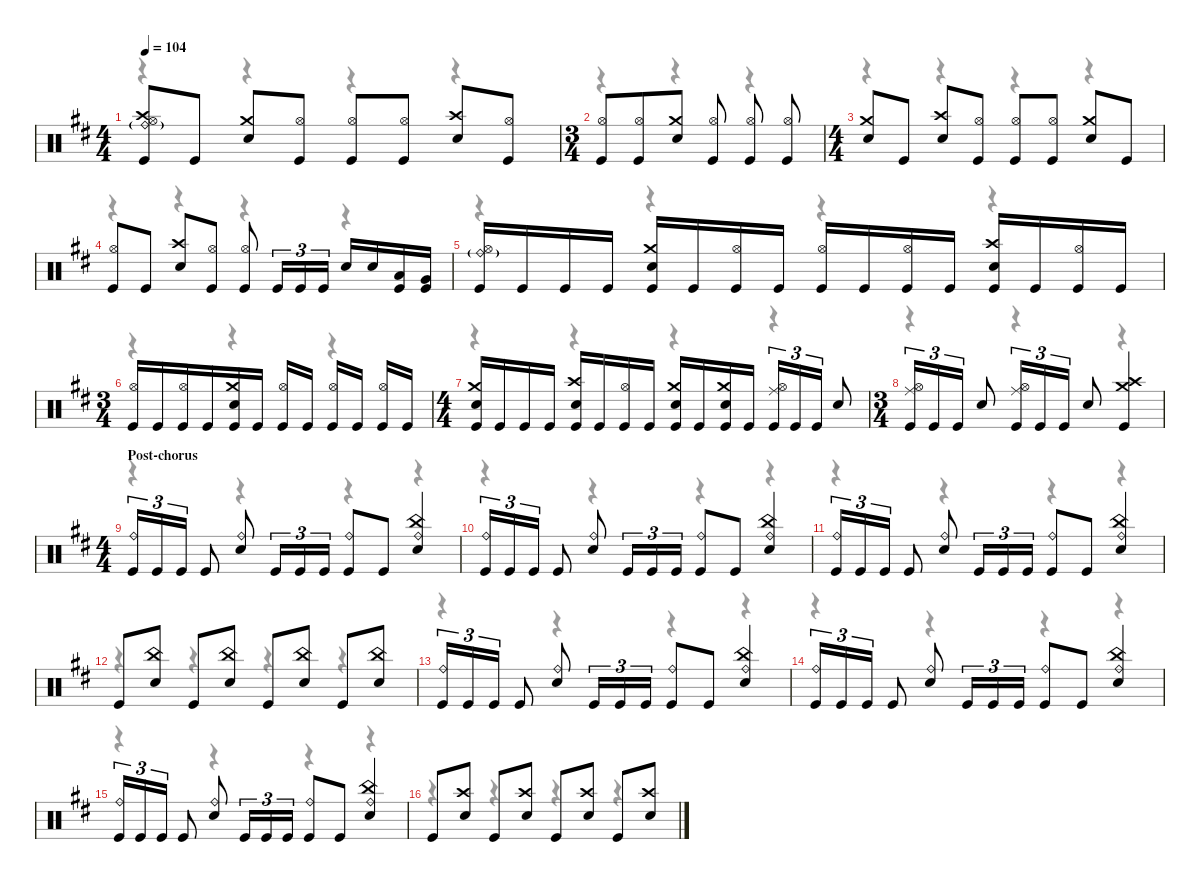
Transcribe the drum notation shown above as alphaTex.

\defaultSystemsLayout 4
\hideDynamics
\bracketExtendMode nobrackets
\singleTrackTrackNamePolicy hidden
\multiTrackTrackNamePolicy hidden
\firstSystemTrackNameMode fullname
\otherSystemsTrackNameOrientation horizontal
\track ("Drums" "drm.") {instrument percussion}
\staff {score}
\articulation defaults
\voice
\ts (4 4)
\beaming (8 2 2 2 2)
\tempo 104
\clef neutral
\ks bminor
("Ride (bell)"{g acc forcenatural} "Crash high (hit)"{acc forcenatural} "Hi-Hat (open)"{acc forcenatural} "Kick (hit)"{acc forcenatural}).8{dy mp beam Up} "Kick (hit)"{acc forcenatural}.8{dy f beam Up} ("Crash medium (hit)"{acc forcenatural} "Snare (hit) 2"{acc forcenatural}).8{dy mp beam Up} ("Hi-Hat (open)"{acc forcenatural} "Kick (hit)"{acc forcenatural}).8{dy pp beam Up} ("Hi-Hat (open)"{acc forcenatural} "Kick (hit)"{acc forcenatural}).8{dy mp beam Up} ("Hi-Hat (open)"{acc forcenatural} "Kick (hit)"{acc forcenatural}).8{dy pp beam Up} ("Crash high (hit)"{acc forcenatural} "Snare (hit) 2"{acc forcenatural}).8{dy mp beam Up} ("Hi-Hat (open)"{acc forcenatural} "Kick (hit)"{acc forcenatural}).8{dy pp beam Up} |
\ts (3 4)
\beaming (8 3 1 1 1)
("Hi-Hat (open)"{acc forcenatural} "Kick (hit)"{acc forcenatural}).8{dy mp beam Up} ("Hi-Hat (open)"{acc forcenatural} "Kick (hit)"{acc forcenatural}).8{dy pp beam Up} ("Crash medium (hit)"{acc forcenatural} "Snare (hit) 2"{acc forcenatural}).8{dy mp beam Up} ("Hi-Hat (open)"{acc forcenatural} "Kick (hit)"{acc forcenatural}).8{dy pp beam Up} ("Hi-Hat (open)"{acc forcenatural} "Kick (hit)"{acc forcenatural}).8{dy mp beam Up} ("Hi-Hat (open)"{acc forcenatural} "Kick (hit)"{acc forcenatural}).8{dy pp beam Up} |
\ts (4 4)
\beaming (8 2 2 2 2)
("Crash medium (hit)"{acc forcenatural} "Snare (hit) 2"{acc forcenatural}).8{dy mp beam Up} "Kick (hit)"{acc forcenatural}.8{dy f beam Up} ("Crash high (hit)"{acc forcenatural} "Snare (hit) 2"{acc forcenatural}).8{dy mp beam Up} ("Hi-Hat (open)"{acc forcenatural} "Kick (hit)"{acc forcenatural}).8{dy pp beam Up} ("Hi-Hat (open)"{acc forcenatural} "Kick (hit)"{acc forcenatural}).8{dy mp beam Up} ("Hi-Hat (open)"{acc forcenatural} "Kick (hit)"{acc forcenatural}).8{dy pp beam Up} ("Crash medium (hit)"{acc forcenatural} "Snare (hit) 2"{acc forcenatural}).8{dy mp beam Up} "Kick (hit)"{acc forcenatural}.8{dy f beam Up} |
("Hi-Hat (open)"{acc forcenatural} "Kick (hit)"{acc forcenatural}).8{dy mp beam Up} "Kick (hit)"{acc forcenatural}.8{dy f beam Up} ("Crash high (hit)"{acc forcenatural} "Snare (hit) 2"{acc forcenatural}).8{dy mp beam Up} ("Hi-Hat (open)"{acc forcenatural} "Kick (hit)"{acc forcenatural}).8{dy pp beam Up} ("Hi-Hat (open)"{acc forcenatural} "Kick (hit)"{acc forcenatural}).8{dy mp beam Up} "Kick (hit)"{acc forcenatural}.16{tu (3 2) dy f beam Up} "Kick (hit)"{acc forcenatural}.16{tu (3 2) beam Up} "Kick (hit)"{acc forcenatural}.16{tu (3 2) beam Up} "Snare (hit) 2"{acc forcenatural}.16{beam Up} "Snare (hit) 2"{acc forcenatural}.16{beam Up} ("Low Tom (hit)"{acc forcenatural} "Kick (hit)"{acc forcenatural}).16{dy mp beam Up} ("Very Low Tom (hit)"{acc forcenatural} "Kick (hit)"{acc forcenatural}).16{beam Up} |
("Ride (bell)"{g acc forcenatural} "Hi-Hat (open)"{acc forcenatural} "Kick (hit)"{acc forcenatural}).16{beam Up} "Kick (hit)"{acc forcenatural}.16{dy f beam Up} "Kick (hit)"{acc forcenatural}.16{beam Up} "Kick (hit)"{acc forcenatural}.16{beam Up} ("Crash medium (hit)"{acc forcenatural} "Snare (hit) 2"{acc forcenatural} "Kick (hit)"{acc forcenatural}).16{dy mp beam Up} "Kick (hit)"{acc forcenatural}.16{dy f beam Up} ("Hi-Hat (open)"{acc forcenatural} "Kick (hit)"{acc forcenatural}).16{dy pp beam Up} "Kick (hit)"{acc forcenatural}.16{dy f beam Up} ("Hi-Hat (open)"{acc forcenatural} "Kick (hit)"{acc forcenatural}).16{dy mp beam Up} "Kick (hit)"{acc forcenatural}.16{dy f beam Up} ("Hi-Hat (open)"{acc forcenatural} "Kick (hit)"{acc forcenatural}).16{dy pp beam Up} "Kick (hit)"{acc forcenatural}.16{dy f beam Up} ("Crash high (hit)"{acc forcenatural} "Snare (hit) 2"{acc forcenatural} "Kick (hit)"{acc forcenatural}).16{dy mp beam Up} "Kick (hit)"{acc forcenatural}.16{dy f beam Up} ("Hi-Hat (open)"{acc forcenatural} "Kick (hit)"{acc forcenatural}).16{dy pp beam Up} "Kick (hit)"{acc forcenatural}.16{dy f beam Up} |
\ts (3 4)
\beaming (8 3 1 1 1)
("Hi-Hat (open)"{acc forcenatural} "Kick (hit)"{acc forcenatural}).16{dy mp beam Up} "Kick (hit)"{acc forcenatural}.16{dy f beam Up} ("Hi-Hat (open)"{acc forcenatural} "Kick (hit)"{acc forcenatural}).16{dy pp beam Up} "Kick (hit)"{acc forcenatural}.16{dy f beam Up} ("Crash medium (hit)"{acc forcenatural} "Snare (hit) 2"{acc forcenatural} "Kick (hit)"{acc forcenatural}).16{dy mp beam Up} "Kick (hit)"{acc forcenatural}.16{dy f beam Up} ("Hi-Hat (open)"{acc forcenatural} "Kick (hit)"{acc forcenatural}).16{dy pp beam Up} "Kick (hit)"{acc forcenatural}.16{dy f beam Up} ("Hi-Hat (open)"{acc forcenatural} "Kick (hit)"{acc forcenatural}).16{dy mp beam Up} "Kick (hit)"{acc forcenatural}.16{dy f beam Up} ("Hi-Hat (open)"{acc forcenatural} "Kick (hit)"{acc forcenatural}).16{dy pp beam Up} "Kick (hit)"{acc forcenatural}.16{dy f beam Up} |
\ts (4 4)
\beaming (8 2 2 2 2)
("Crash medium (hit)"{acc forcenatural} "Snare (hit) 2"{acc forcenatural} "Kick (hit)"{acc forcenatural}).16{dy mp beam Up} "Kick (hit)"{acc forcenatural}.16{dy f beam Up} "Kick (hit)"{acc forcenatural}.16{beam Up} "Kick (hit)"{acc forcenatural}.16{beam Up} ("Crash high (hit)"{acc forcenatural} "Snare (hit) 2"{acc forcenatural} "Kick (hit)"{acc forcenatural}).16{dy mp beam Up} "Kick (hit)"{acc forcenatural}.16{dy f beam Up} ("Hi-Hat (open)"{acc forcenatural} "Kick (hit)"{acc forcenatural}).16{dy pp beam Up} "Kick (hit)"{acc forcenatural}.16{dy f beam Up} ("Crash medium (hit)"{acc forcenatural} "Snare (hit) 2"{acc forcenatural} "Kick (hit)"{acc forcenatural}).16{dy mp beam Up} "Kick (hit)"{acc forcenatural}.16{dy f beam Up} ("Crash medium (hit)"{acc forcenatural} "Snare (hit) 2"{acc forcenatural} "Kick (hit)"{acc forcenatural}).16{dy mp beam Up} "Kick (hit)"{acc forcenatural}.16{dy f beam Up} ("Ride (middle)"{acc forcenatural} "Hi-Hat (open)"{acc forcenatural} "Kick (hit)"{acc forcenatural}).16{tu (3 2) dy mf beam Up} "Kick (hit)"{acc forcenatural}.16{tu (3 2) dy f beam Up} "Kick (hit)"{acc forcenatural}.16{tu (3 2) beam Up} "Snare (hit) 2"{acc forcenatural}.8{beam Up} |
\ts (3 4)
\beaming (8 3 1 1 1)
("Ride (middle)"{acc forcenatural} "Hi-Hat (open)"{acc forcenatural} "Kick (hit)"{acc forcenatural}).16{tu (3 2) dy mf beam Up} "Kick (hit)"{acc forcenatural}.16{tu (3 2) dy f beam Up} "Kick (hit)"{acc forcenatural}.16{tu (3 2) beam Up} "Snare (hit) 2"{acc forcenatural}.8{beam Up} ("Ride (middle)"{acc forcenatural} "Hi-Hat (open)"{acc forcenatural} "Kick (hit)"{acc forcenatural}).16{tu (3 2) dy mf beam Up} "Kick (hit)"{acc forcenatural}.16{tu (3 2) dy f beam Up} "Kick (hit)"{acc forcenatural}.16{tu (3 2) beam Up} "Snare (hit) 2"{acc forcenatural}.8{beam Up} ("Crash high (hit)"{acc forcenatural} "Crash medium (hit)"{acc forcenatural} "Kick (hit)"{acc forcenatural}).4{dy mp beam Up} |
\ts (4 4)
\beaming (8 2 2 2 2)
\section ("" "Post-chorus")
("Ride (bell)"{acc forcenatural} "Kick (hit)"{acc forcenatural}).16{tu (3 2) dy mf beam Up} "Kick (hit)"{acc forcenatural}.16{tu (3 2) dy f beam Up} "Kick (hit)"{acc forcenatural}.16{tu (3 2) beam Up} "Kick (hit)"{acc forcenatural}.8{beam Up} ("Ride (bell)"{acc forcenatural} "Snare (hit) 2"{acc forcenatural}).8{dy mf beam Up} "Kick (hit)"{acc forcenatural}.16{tu (3 2) dy f beam Up} "Kick (hit)"{acc forcenatural}.16{tu (3 2) beam Up} "Kick (hit)"{acc forcenatural}.16{tu (3 2) beam Up} ("Ride (bell)"{acc forcenatural} "Kick (hit)"{acc forcenatural}).8{dy mf beam Up} "Kick (hit)"{acc forcenatural}.8{dy f beam Up} ("Ride (bell)"{acc forcenatural} "China (hit)"{acc forcenatural} "Snare (hit) 2"{acc forcenatural}).4{dy mf beam Up} |
("Ride (bell)"{acc forcenatural} "Kick (hit)"{acc forcenatural}).16{tu (3 2) beam Up} "Kick (hit)"{acc forcenatural}.16{tu (3 2) dy f beam Up} "Kick (hit)"{acc forcenatural}.16{tu (3 2) beam Up} "Kick (hit)"{acc forcenatural}.8{beam Up} ("Ride (bell)"{acc forcenatural} "Snare (hit) 2"{acc forcenatural}).8{dy mf beam Up} "Kick (hit)"{acc forcenatural}.16{tu (3 2) dy f beam Up} "Kick (hit)"{acc forcenatural}.16{tu (3 2) beam Up} "Kick (hit)"{acc forcenatural}.16{tu (3 2) beam Up} ("Ride (bell)"{acc forcenatural} "Kick (hit)"{acc forcenatural}).8{dy mf beam Up} "Kick (hit)"{acc forcenatural}.8{dy f beam Up} ("Ride (bell)"{acc forcenatural} "China (hit)"{acc forcenatural} "Snare (hit) 2"{acc forcenatural}).4{dy mf beam Up} |
("Ride (bell)"{acc forcenatural} "Kick (hit)"{acc forcenatural}).16{tu (3 2) beam Up} "Kick (hit)"{acc forcenatural}.16{tu (3 2) dy f beam Up} "Kick (hit)"{acc forcenatural}.16{tu (3 2) beam Up} "Kick (hit)"{acc forcenatural}.8{beam Up} ("Ride (bell)"{acc forcenatural} "Snare (hit) 2"{acc forcenatural}).8{dy mf beam Up} "Kick (hit)"{acc forcenatural}.16{tu (3 2) dy f beam Up} "Kick (hit)"{acc forcenatural}.16{tu (3 2) beam Up} "Kick (hit)"{acc forcenatural}.16{tu (3 2) beam Up} ("Ride (bell)"{acc forcenatural} "Kick (hit)"{acc forcenatural}).8{dy mf beam Up} "Kick (hit)"{acc forcenatural}.8{dy f beam Up} ("Ride (bell)"{acc forcenatural} "China (hit)"{acc forcenatural} "Snare (hit) 2"{acc forcenatural}).4{dy mf beam Up} |
"Kick (hit)"{acc forcenatural}.8{dy f beam Up} ("China (hit)"{acc forcenatural} "Snare (hit) 2"{acc forcenatural}).8{beam Up} "Kick (hit)"{acc forcenatural}.8{beam Up} ("China (hit)"{acc forcenatural} "Snare (hit) 2"{acc forcenatural}).8{beam Up} "Kick (hit)"{acc forcenatural}.8{beam Up} ("China (hit)"{acc forcenatural} "Snare (hit) 2"{acc forcenatural}).8{beam Up} "Kick (hit)"{acc forcenatural}.8{beam Up} ("China (hit)"{acc forcenatural} "Snare (hit) 2"{acc forcenatural}).8{beam Up} |
("Ride (bell)"{acc forcenatural} "Kick (hit)"{acc forcenatural}).16{tu (3 2) dy mf beam Up} "Kick (hit)"{acc forcenatural}.16{tu (3 2) dy f beam Up} "Kick (hit)"{acc forcenatural}.16{tu (3 2) beam Up} "Kick (hit)"{acc forcenatural}.8{beam Up} ("Ride (bell)"{acc forcenatural} "Snare (hit) 2"{acc forcenatural}).8{dy mf beam Up} "Kick (hit)"{acc forcenatural}.16{tu (3 2) dy f beam Up} "Kick (hit)"{acc forcenatural}.16{tu (3 2) beam Up} "Kick (hit)"{acc forcenatural}.16{tu (3 2) beam Up} ("Ride (bell)"{acc forcenatural} "Kick (hit)"{acc forcenatural}).8{dy mf beam Up} "Kick (hit)"{acc forcenatural}.8{dy f beam Up} ("Ride (bell)"{acc forcenatural} "China (hit)"{acc forcenatural} "Snare (hit) 2"{acc forcenatural}).4{dy mf beam Up} |
("Ride (bell)"{acc forcenatural} "Kick (hit)"{acc forcenatural}).16{tu (3 2) beam Up} "Kick (hit)"{acc forcenatural}.16{tu (3 2) dy f beam Up} "Kick (hit)"{acc forcenatural}.16{tu (3 2) beam Up} "Kick (hit)"{acc forcenatural}.8{beam Up} ("Ride (bell)"{acc forcenatural} "Snare (hit) 2"{acc forcenatural}).8{dy mf beam Up} "Kick (hit)"{acc forcenatural}.16{tu (3 2) dy f beam Up} "Kick (hit)"{acc forcenatural}.16{tu (3 2) beam Up} "Kick (hit)"{acc forcenatural}.16{tu (3 2) beam Up} ("Ride (bell)"{acc forcenatural} "Kick (hit)"{acc forcenatural}).8{dy mf beam Up} "Kick (hit)"{acc forcenatural}.8{dy f beam Up} ("Ride (bell)"{acc forcenatural} "China (hit)"{acc forcenatural} "Snare (hit) 2"{acc forcenatural}).4{dy mf beam Up} |
("Ride (bell)"{acc forcenatural} "Kick (hit)"{acc forcenatural}).16{tu (3 2) beam Up} "Kick (hit)"{acc forcenatural}.16{tu (3 2) dy f beam Up} "Kick (hit)"{acc forcenatural}.16{tu (3 2) beam Up} "Kick (hit)"{acc forcenatural}.8{beam Up} ("Ride (bell)"{acc forcenatural} "Snare (hit) 2"{acc forcenatural}).8{dy mf beam Up} "Kick (hit)"{acc forcenatural}.16{tu (3 2) dy f beam Up} "Kick (hit)"{acc forcenatural}.16{tu (3 2) beam Up} "Kick (hit)"{acc forcenatural}.16{tu (3 2) beam Up} ("Ride (bell)"{acc forcenatural} "Kick (hit)"{acc forcenatural}).8{dy mf beam Up} "Kick (hit)"{acc forcenatural}.8{dy f beam Up} ("Ride (bell)"{acc forcenatural} "China (hit)"{acc forcenatural} "Snare (hit) 2"{acc forcenatural}).4{dy mf beam Up} |
"Kick (hit)"{acc forcenatural}.8{dy f beam Up} ("Crash high (hit)"{acc forcenatural} "Snare (hit) 2"{acc forcenatural}).8{dy mf beam Up} "Kick (hit)"{acc forcenatural}.8{dy f beam Up} ("Crash high (hit)"{acc forcenatural} "Snare (hit) 2"{acc forcenatural}).8{dy mf beam Up} "Kick (hit)"{acc forcenatural}.8{dy f beam Up} ("Crash high (hit)"{acc forcenatural} "Snare (hit) 2"{acc forcenatural}).8{dy mf beam Up} "Kick (hit)"{acc forcenatural}.8{dy f beam Up} ("Crash high (hit)"{acc forcenatural} "Snare (hit) 2"{acc forcenatural}).8{dy mf beam Up}
\voice
\clef neutral
\ottava regular
\simile none
\ks bminor
r.4{dy mf beam Down} r.4{beam Down} r.4{beam Down} r.4{beam Down} |
r.4{beam Down} r.4{beam Down} r.4{beam Down} |
r.4{beam Down} r.4{beam Down} r.4{beam Down} r.4{beam Down} |
r.4{beam Down} r.4{beam Down} r.4{beam Down} r.4{beam Down} |
r.4{beam Down} r.4{beam Down} r.4{beam Down} r.4{beam Down} |
r.4{beam Down} r.4{beam Down} r.4{beam Down} |
r.4{beam Down} r.4{beam Down} r.4{beam Down} r.4{beam Down} |
r.4{beam Down} r.4{beam Down} r.4{beam Down} |
r.4{beam Down} r.4{beam Down} r.4{beam Down} r.4{beam Down} |
r.4{beam Down} r.4{beam Down} r.4{beam Down} r.4{beam Down} |
r.4{beam Down} r.4{beam Down} r.4{beam Down} r.4{beam Down} |
r.4{beam Down} r.4{beam Down} r.4{beam Down} r.4{beam Down} |
r.4{beam Down} r.4{beam Down} r.4{beam Down} r.4{beam Down} |
r.4{beam Down} r.4{beam Down} r.4{beam Down} r.4{beam Down} |
r.4{beam Down} r.4{beam Down} r.4{beam Down} r.4{beam Down} |
r.4{beam Down} r.4{beam Down} r.4{beam Down} r.4{beam Down}
